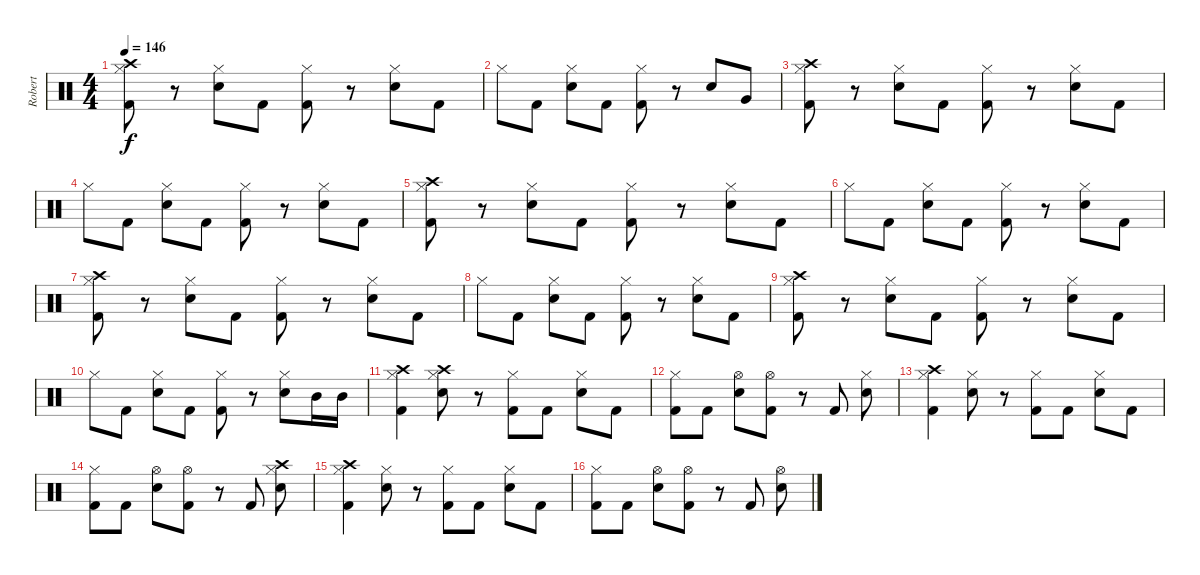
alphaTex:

\track ("Robert" "Robert") {instrument percussion}
\staff {score}
\articulation defaults
\ts (4 4)
\tempo 146
\clef neutral
\ks c
("Crash high (hit)" "Hi-Hat (closed)" "Kick (hit) 2").8{dy f} r.8 ("Hi-Hat (closed)" "Electric Snare (hit)").8 "Kick (hit) 2".8 ("Hi-Hat (closed)" "Kick (hit) 2").8 r.8 ("Hi-Hat (closed)" "Electric Snare (hit)").8 "Kick (hit) 2".8 |
"Hi-Hat (closed)".8 "Kick (hit) 2".8 ("Hi-Hat (closed)" "Electric Snare (hit)").8 "Kick (hit) 2".8 ("Hi-Hat (closed)" "Kick (hit) 2").8 r.8 "Electric Snare (hit)".8 "Very Low Tom (hit)".8 |
("Crash high (hit)" "Hi-Hat (closed)" "Kick (hit) 2").8 r.8 ("Hi-Hat (closed)" "Electric Snare (hit)").8 "Kick (hit) 2".8 ("Hi-Hat (closed)" "Kick (hit) 2").8 r.8 ("Hi-Hat (closed)" "Electric Snare (hit)").8 "Kick (hit) 2".8 |
"Hi-Hat (closed)".8 "Kick (hit) 2".8 ("Hi-Hat (closed)" "Electric Snare (hit)").8 "Kick (hit) 2".8 ("Hi-Hat (closed)" "Kick (hit) 2").8 r.8 ("Hi-Hat (closed)" "Electric Snare (hit)").8 "Kick (hit) 2".8 |
("Crash high (hit)" "Hi-Hat (closed)" "Kick (hit) 2").8 r.8 ("Hi-Hat (closed)" "Electric Snare (hit)").8 "Kick (hit) 2".8 ("Hi-Hat (closed)" "Kick (hit) 2").8 r.8 ("Hi-Hat (closed)" "Electric Snare (hit)").8 "Kick (hit) 2".8 |
"Hi-Hat (closed)".8 "Kick (hit) 2".8 ("Hi-Hat (closed)" "Electric Snare (hit)").8 "Kick (hit) 2".8 ("Hi-Hat (closed)" "Kick (hit) 2").8 r.8 ("Hi-Hat (closed)" "Electric Snare (hit)").8 "Kick (hit) 2".8 |
("Crash high (hit)" "Hi-Hat (closed)" "Kick (hit) 2").8 r.8 ("Hi-Hat (closed)" "Electric Snare (hit)").8 "Kick (hit) 2".8 ("Hi-Hat (closed)" "Kick (hit) 2").8 r.8 ("Hi-Hat (closed)" "Electric Snare (hit)").8 "Kick (hit) 2".8 |
"Hi-Hat (closed)".8 "Kick (hit) 2".8 ("Hi-Hat (closed)" "Electric Snare (hit)").8 "Kick (hit) 2".8 ("Hi-Hat (closed)" "Kick (hit) 2").8 r.8 ("Hi-Hat (closed)" "Electric Snare (hit)").8 "Kick (hit) 2".8 |
("Crash high (hit)" "Hi-Hat (closed)" "Kick (hit) 2").8 r.8 ("Hi-Hat (closed)" "Electric Snare (hit)").8 "Kick (hit) 2".8 ("Hi-Hat (closed)" "Kick (hit) 2").8 r.8 ("Hi-Hat (closed)" "Electric Snare (hit)").8 "Kick (hit) 2".8 |
"Hi-Hat (closed)".8 "Kick (hit) 2".8 ("Hi-Hat (closed)" "Electric Snare (hit)").8 "Kick (hit) 2".8 ("Hi-Hat (closed)" "Kick (hit) 2").8 r.8 ("Hi-Hat (closed)" "Electric Snare (hit)").8 "Mid Tom (hit)".16 "Mid Tom (hit)".16 |
("Crash high (hit)" "Hi-Hat (closed)" "Kick (hit) 2").4 ("Crash high (hit)" "Hi-Hat (closed)" "Electric Snare (hit)").8 r.8 ("Hi-Hat (closed)" "Kick (hit) 2").8 "Kick (hit) 2".8 ("Hi-Hat (closed)" "Electric Snare (hit)").8 "Kick (hit) 2".8 |
("Hi-Hat (closed)" "Kick (hit) 2").8 "Kick (hit) 2".8 ("Hi-Hat (open)" "Electric Snare (hit)").8 ("Hi-Hat (open)" "Kick (hit) 2").8 r.8 "Kick (hit) 2".8 ("Hi-Hat (closed)" "Electric Snare (hit)").8 |
("Crash high (hit)" "Hi-Hat (closed)" "Kick (hit) 2").4 ("Hi-Hat (closed)" "Electric Snare (hit)").8 r.8 ("Hi-Hat (closed)" "Kick (hit) 2").8 "Kick (hit) 2".8 ("Hi-Hat (closed)" "Electric Snare (hit)").8 "Kick (hit) 2".8 |
("Hi-Hat (closed)" "Kick (hit) 2").8 "Kick (hit) 2".8 ("Hi-Hat (open)" "Electric Snare (hit)").8 ("Hi-Hat (open)" "Kick (hit) 2").8 r.8 "Kick (hit) 2".8 ("Crash high (hit)" "Hi-Hat (closed)" "Electric Snare (hit)").8 |
("Crash high (hit)" "Hi-Hat (closed)" "Kick (hit) 2").4 ("Hi-Hat (closed)" "Electric Snare (hit)").8 r.8 ("Hi-Hat (closed)" "Kick (hit) 2").8 "Kick (hit) 2".8 ("Hi-Hat (closed)" "Electric Snare (hit)").8 "Kick (hit) 2".8 |
("Hi-Hat (closed)" "Kick (hit) 2").8 "Kick (hit) 2".8 ("Hi-Hat (open)" "Electric Snare (hit)").8 ("Hi-Hat (open)" "Kick (hit) 2").8 r.8 "Kick (hit) 2".8 ("Hi-Hat (open)" "Electric Snare (hit)").8
